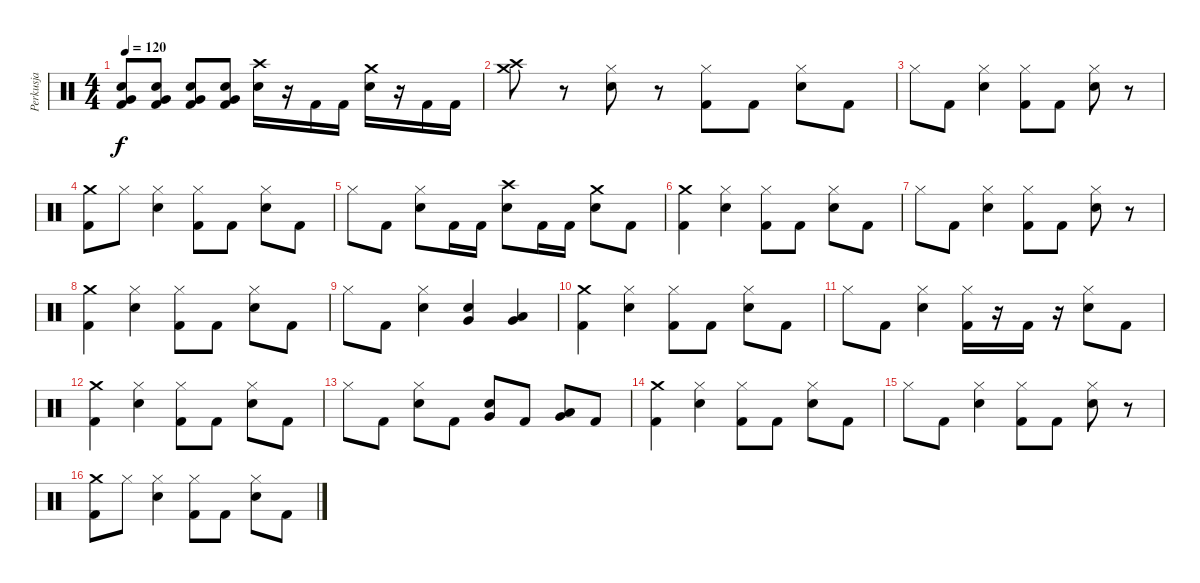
\track ("Perkusja" "Perkusja") {instrument percussion}
\staff {score}
\articulation defaults
\ts (4 4)
\tempo 120
\clef neutral
\ks c
("Very Low Tom (hit)" "Kick (hit) 2" "Snare (hit) 2").8{dy f} ("Kick (hit) 2" "Very Low Tom (hit)" "Snare (hit) 2").8 ("Kick (hit) 2" "Very Low Tom (hit)" "Snare (hit) 2").8 ("Kick (hit) 2" "Very Low Tom (hit)" "Snare (hit) 2").8 ("Crash high (hit)" "Snare (hit) 2").16 r.16 "Kick (hit) 2".16 "Kick (hit) 2".16 ("Crash medium (hit)" "Snare (hit) 2").16 r.16 "Kick (hit) 2".16 "Kick (hit) 2".16 |
("Crash high (hit)" "Crash medium (hit)").8 r.8 ("Hi-Hat (closed)" "Snare (hit) 2").8 r.8 ("Hi-Hat (closed)" "Kick (hit) 2").8 "Kick (hit) 2".8 ("Hi-Hat (closed)" "Snare (hit) 2").8 "Kick (hit) 2".8 |
"Hi-Hat (closed)".8 "Kick (hit) 2".8 ("Hi-Hat (closed)" "Snare (hit) 2").4 ("Hi-Hat (closed)" "Kick (hit) 2").8 "Kick (hit) 2".8 ("Hi-Hat (closed)" "Snare (hit) 2").8 r.8 |
("Crash medium (hit)" "Kick (hit) 2").8 "Hi-Hat (closed)".8 ("Hi-Hat (closed)" "Snare (hit) 2").4 ("Hi-Hat (closed)" "Kick (hit) 2").8 "Kick (hit) 2".8 ("Hi-Hat (closed)" "Snare (hit) 2").8 "Kick (hit) 2".8 |
"Hi-Hat (closed)".8 "Kick (hit) 2".8 ("Hi-Hat (closed)" "Snare (hit) 2").8 "Kick (hit) 2".16 "Kick (hit) 2".16 ("Crash high (hit)" "Snare (hit) 2").8 "Kick (hit) 2".16 "Kick (hit) 2".16 ("Crash medium (hit)" "Snare (hit) 2").8 "Kick (hit) 2".8 |
("Kick (hit) 2" "Crash medium (hit)").4 ("Hi-Hat (closed)" "Snare (hit) 2").4 ("Hi-Hat (closed)" "Kick (hit) 2").8 "Kick (hit) 2".8 ("Hi-Hat (closed)" "Snare (hit) 2").8 "Kick (hit) 2".8 |
"Hi-Hat (closed)".8 "Kick (hit) 2".8 ("Hi-Hat (closed)" "Snare (hit) 2").4 ("Hi-Hat (closed)" "Kick (hit) 2").8 "Kick (hit) 2".8 ("Hi-Hat (closed)" "Snare (hit) 2").8 r.8 |
("Crash medium (hit)" "Kick (hit) 2").4 ("Hi-Hat (closed)" "Snare (hit) 2").4 ("Hi-Hat (closed)" "Kick (hit) 2").8 "Kick (hit) 2".8 ("Hi-Hat (closed)" "Snare (hit) 2").8 "Kick (hit) 2".8 |
"Hi-Hat (closed)".8 "Kick (hit) 2".8 ("Hi-Hat (closed)" "Snare (hit) 2").4 ("Snare (hit) 2" "Very Low Tom (hit)").4 ("Very Low Tom (hit)" "Low Floor Tom (hit)").4 |
("Kick (hit) 2" "Crash medium (hit)").4 ("Hi-Hat (closed)" "Snare (hit) 2").4 ("Hi-Hat (closed)" "Kick (hit) 2").8 "Kick (hit) 2".8 ("Hi-Hat (closed)" "Snare (hit) 2").8 "Kick (hit) 2".8 |
"Hi-Hat (closed)".8 "Kick (hit) 2".8 ("Hi-Hat (closed)" "Snare (hit) 2").4 ("Hi-Hat (closed)" "Kick (hit) 2").16 r.16 "Kick (hit) 2".16 r.16 ("Hi-Hat (closed)" "Snare (hit) 2").8 "Kick (hit) 2".8 |
("Crash medium (hit)" "Kick (hit) 2").4 ("Hi-Hat (closed)" "Snare (hit) 2").4 ("Hi-Hat (closed)" "Kick (hit) 2").8 "Kick (hit) 2".8 ("Hi-Hat (closed)" "Snare (hit) 2").8 "Kick (hit) 2".8 |
"Hi-Hat (closed)".8 "Kick (hit) 2".8 ("Hi-Hat (closed)" "Snare (hit) 2").8 "Kick (hit) 2".8 ("Snare (hit) 2" "Very Low Tom (hit)").8 "Kick (hit) 2".8 ("Very Low Tom (hit)" "Low Floor Tom (hit)").8 "Kick (hit) 2".8 |
("Kick (hit) 2" "Crash medium (hit)").4 ("Hi-Hat (closed)" "Snare (hit) 2").4 ("Hi-Hat (closed)" "Kick (hit) 2").8 "Kick (hit) 2".8 ("Hi-Hat (closed)" "Snare (hit) 2").8 "Kick (hit) 2".8 |
"Hi-Hat (closed)".8 "Kick (hit) 2".8 ("Hi-Hat (closed)" "Snare (hit) 2").4 ("Hi-Hat (closed)" "Kick (hit) 2").8 "Kick (hit) 2".8 ("Hi-Hat (closed)" "Snare (hit) 2").8 r.8 |
("Crash medium (hit)" "Kick (hit) 2").8 "Hi-Hat (closed)".8 ("Hi-Hat (closed)" "Snare (hit) 2").4 ("Hi-Hat (closed)" "Kick (hit) 2").8 "Kick (hit) 2".8 ("Hi-Hat (closed)" "Snare (hit) 2").8 "Kick (hit) 2".8
